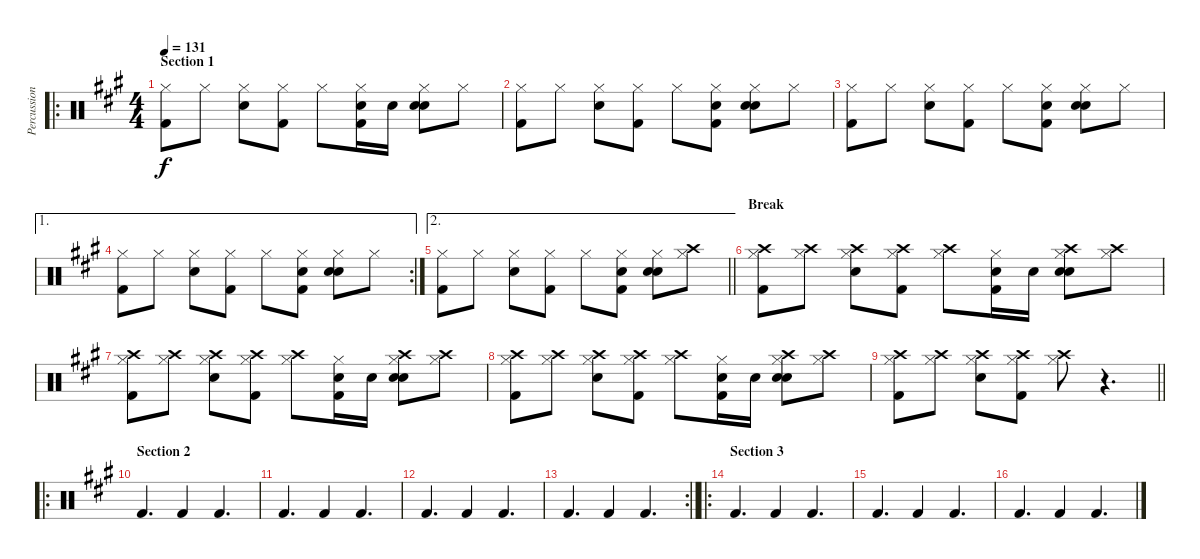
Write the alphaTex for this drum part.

\track ("Percussion" "Percussion") {instrument percussion bank 2}
\staff {score}
\articulation defaults
\ro
\ts (4 4)
\section ("" "Section 1")
\tempo 131
\clef neutral
\ks f#minor
("Hi-Hat (closed)" "Kick (hit) 2").8{dy f} "Hi-Hat (closed)".8 ("Hi-Hat (closed)" "Snare (hit) 2").8 ("Hi-Hat (closed)" "Kick (hit) 2").8 "Hi-Hat (closed)".8 ("Hi-Hat (closed)" "Hand Clap (hit)" "Kick (hit) 2").16 "Hand Clap (hit)".16 ("Hi-Hat (closed)" "Hand Clap (hit)" "Snare (hit) 2").8 "Hi-Hat (closed)".8 |
("Hi-Hat (closed)" "Kick (hit) 2").8 "Hi-Hat (closed)".8 ("Hi-Hat (closed)" "Snare (hit) 2").8 ("Hi-Hat (closed)" "Kick (hit) 2").8 "Hi-Hat (closed)".8 ("Hi-Hat (closed)" "Hand Clap (hit)" "Kick (hit) 2").8 ("Hi-Hat (closed)" "Hand Clap (hit)" "Snare (hit) 2").8 "Hi-Hat (closed)".8 |
("Hi-Hat (closed)" "Kick (hit) 2").8 "Hi-Hat (closed)".8 ("Hi-Hat (closed)" "Snare (hit) 2").8 ("Hi-Hat (closed)" "Kick (hit) 2").8 "Hi-Hat (closed)".8 ("Hi-Hat (closed)" "Hand Clap (hit)" "Kick (hit) 2").8 ("Hi-Hat (closed)" "Hand Clap (hit)" "Snare (hit) 2").8 "Hi-Hat (closed)".8 |
\ae 1
\rc 2
("Hi-Hat (closed)" "Kick (hit) 2").8 "Hi-Hat (closed)".8 ("Hi-Hat (closed)" "Snare (hit) 2").8 ("Hi-Hat (closed)" "Kick (hit) 2").8 "Hi-Hat (closed)".8 ("Hi-Hat (closed)" "Hand Clap (hit)" "Kick (hit) 2").8 ("Hi-Hat (closed)" "Hand Clap (hit)" "Snare (hit) 2").8 "Hi-Hat (closed)".8 |
\ae 2
\barLineRight lightlight
("Hi-Hat (closed)" "Kick (hit) 2").8 "Hi-Hat (closed)".8 ("Hi-Hat (closed)" "Snare (hit) 2").8 ("Hi-Hat (closed)" "Kick (hit) 2").8 "Hi-Hat (closed)".8 ("Hi-Hat (closed)" "Hand Clap (hit)" "Kick (hit) 2").8 ("Hi-Hat (closed)" "Hand Clap (hit)" "Snare (hit) 2").8 ("Crash high (hit)" "Hi-Hat (closed)").8 |
\section ("" "Break")
("Crash high (hit)" "Hi-Hat (closed)" "Kick (hit) 2").8 ("Crash high (hit)" "Hi-Hat (closed)").8 ("Crash high (hit)" "Hi-Hat (closed)" "Snare (hit) 2").8 ("Crash high (hit)" "Hi-Hat (closed)" "Kick (hit) 2").8 ("Crash high (hit)" "Hi-Hat (closed)").8 ("Hi-Hat (closed)" "Hand Clap (hit)" "Kick (hit) 2").16 "Hand Clap (hit)".16 ("Crash high (hit)" "Hi-Hat (closed)" "Hand Clap (hit)" "Snare (hit) 2").8 ("Crash high (hit)" "Hi-Hat (closed)").8 |
("Crash high (hit)" "Hi-Hat (closed)" "Kick (hit) 2").8 ("Crash high (hit)" "Hi-Hat (closed)").8 ("Crash high (hit)" "Hi-Hat (closed)" "Snare (hit) 2").8 ("Crash high (hit)" "Hi-Hat (closed)" "Kick (hit) 2").8 ("Crash high (hit)" "Hi-Hat (closed)").8 ("Hi-Hat (closed)" "Hand Clap (hit)" "Kick (hit) 2").16 "Hand Clap (hit)".16 ("Crash high (hit)" "Hi-Hat (closed)" "Hand Clap (hit)" "Snare (hit) 2").8 ("Crash high (hit)" "Hi-Hat (closed)").8 |
("Crash high (hit)" "Hi-Hat (closed)" "Kick (hit) 2").8 ("Crash high (hit)" "Hi-Hat (closed)").8 ("Crash high (hit)" "Hi-Hat (closed)" "Snare (hit) 2").8 ("Crash high (hit)" "Hi-Hat (closed)" "Kick (hit) 2").8 ("Crash high (hit)" "Hi-Hat (closed)").8 ("Hi-Hat (closed)" "Hand Clap (hit)" "Kick (hit) 2").16 "Hand Clap (hit)".16 ("Crash high (hit)" "Hi-Hat (closed)" "Hand Clap (hit)" "Snare (hit) 2").8 ("Crash high (hit)" "Hi-Hat (closed)").8 |
\barLineRight lightlight
("Crash high (hit)" "Hi-Hat (closed)" "Kick (hit) 2").8 ("Crash high (hit)" "Hi-Hat (closed)").8 ("Crash high (hit)" "Hi-Hat (closed)" "Snare (hit) 2").8 ("Crash high (hit)" "Hi-Hat (closed)" "Kick (hit) 2").8 ("Crash high (hit)" "Hi-Hat (closed)").8 r.4{d} |
\ro
\section ("" "Section 2")
"Kick (hit) 2".4{d} "Kick (hit) 2".4 "Kick (hit) 2".4{d} |
"Kick (hit) 2".4{d} "Kick (hit) 2".4 "Kick (hit) 2".4{d} |
"Kick (hit) 2".4{d} "Kick (hit) 2".4 "Kick (hit) 2".4{d} |
\rc 2
\barLineRight lightlight "Kick (hit) 2".4{d} "Kick (hit) 2".4 "Kick (hit) 2".4{d}
|
\ro
\section ("" "Section 3")
"Kick (hit) 2".4{d} "Kick (hit) 2".4 "Kick (hit) 2".4{d} |
"Kick (hit) 2".4{d} "Kick (hit) 2".4 "Kick (hit) 2".4{d} |
"Kick (hit) 2".4{d} "Kick (hit) 2".4 "Kick (hit) 2".4{d}
